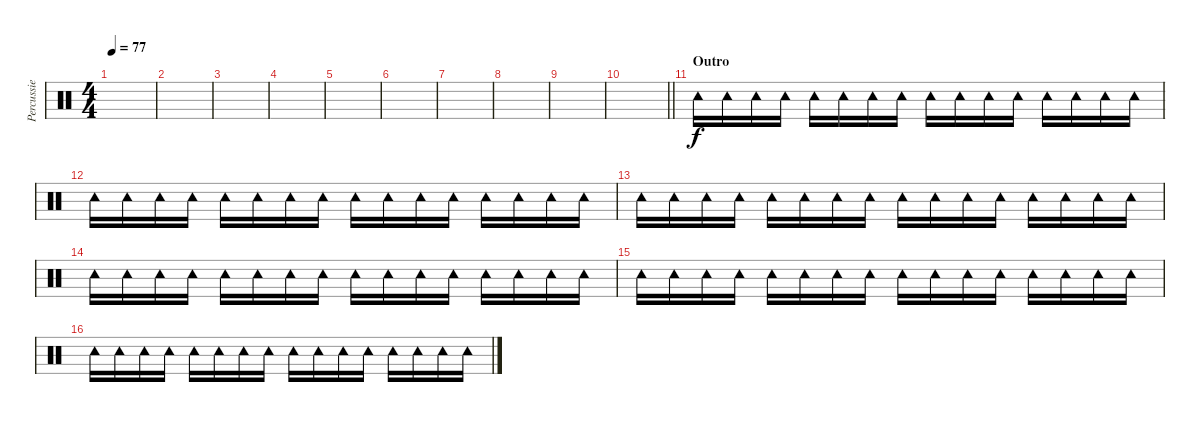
\track ("Percussie" "Percussie") {instrument percussion}
\staff {score}
\articulation defaults
\ts (4 4)
\tempo 77
\clef neutral
\ks c
|
|
|
|
|
|
|
|
|
\barLineRight lightlight
|
\section ("" "Outro")
"Tambourine (hit)".16 "Tambourine (hit)".16 "Tambourine (hit)".16 "Tambourine (hit)".16 "Tambourine (hit)".16 "Tambourine (hit)".16 "Tambourine (hit)".16 "Tambourine (hit)".16 "Tambourine (hit)".16 "Tambourine (hit)".16 "Tambourine (hit)".16 "Tambourine (hit)".16 "Tambourine (hit)".16 "Tambourine (hit)".16 "Tambourine (hit)".16 "Tambourine (hit)".16 |
"Tambourine (hit)".16 "Tambourine (hit)".16 "Tambourine (hit)".16 "Tambourine (hit)".16 "Tambourine (hit)".16 "Tambourine (hit)".16 "Tambourine (hit)".16 "Tambourine (hit)".16 "Tambourine (hit)".16 "Tambourine (hit)".16 "Tambourine (hit)".16 "Tambourine (hit)".16 "Tambourine (hit)".16 "Tambourine (hit)".16 "Tambourine (hit)".16 "Tambourine (hit)".16 |
"Tambourine (hit)".16 "Tambourine (hit)".16 "Tambourine (hit)".16 "Tambourine (hit)".16 "Tambourine (hit)".16 "Tambourine (hit)".16 "Tambourine (hit)".16 "Tambourine (hit)".16 "Tambourine (hit)".16 "Tambourine (hit)".16 "Tambourine (hit)".16 "Tambourine (hit)".16 "Tambourine (hit)".16 "Tambourine (hit)".16 "Tambourine (hit)".16 "Tambourine (hit)".16 |
"Tambourine (hit)".16 "Tambourine (hit)".16 "Tambourine (hit)".16 "Tambourine (hit)".16 "Tambourine (hit)".16 "Tambourine (hit)".16 "Tambourine (hit)".16 "Tambourine (hit)".16 "Tambourine (hit)".16 "Tambourine (hit)".16 "Tambourine (hit)".16 "Tambourine (hit)".16 "Tambourine (hit)".16 "Tambourine (hit)".16 "Tambourine (hit)".16 "Tambourine (hit)".16 |
"Tambourine (hit)".16 "Tambourine (hit)".16 "Tambourine (hit)".16 "Tambourine (hit)".16 "Tambourine (hit)".16 "Tambourine (hit)".16 "Tambourine (hit)".16 "Tambourine (hit)".16 "Tambourine (hit)".16 "Tambourine (hit)".16 "Tambourine (hit)".16 "Tambourine (hit)".16 "Tambourine (hit)".16 "Tambourine (hit)".16 "Tambourine (hit)".16 "Tambourine (hit)".16 |
"Tambourine (hit)".16 "Tambourine (hit)".16 "Tambourine (hit)".16 "Tambourine (hit)".16 "Tambourine (hit)".16 "Tambourine (hit)".16 "Tambourine (hit)".16 "Tambourine (hit)".16 "Tambourine (hit)".16 "Tambourine (hit)".16 "Tambourine (hit)".16 "Tambourine (hit)".16 "Tambourine (hit)".16 "Tambourine (hit)".16 "Tambourine (hit)".16 "Tambourine (hit)".16
